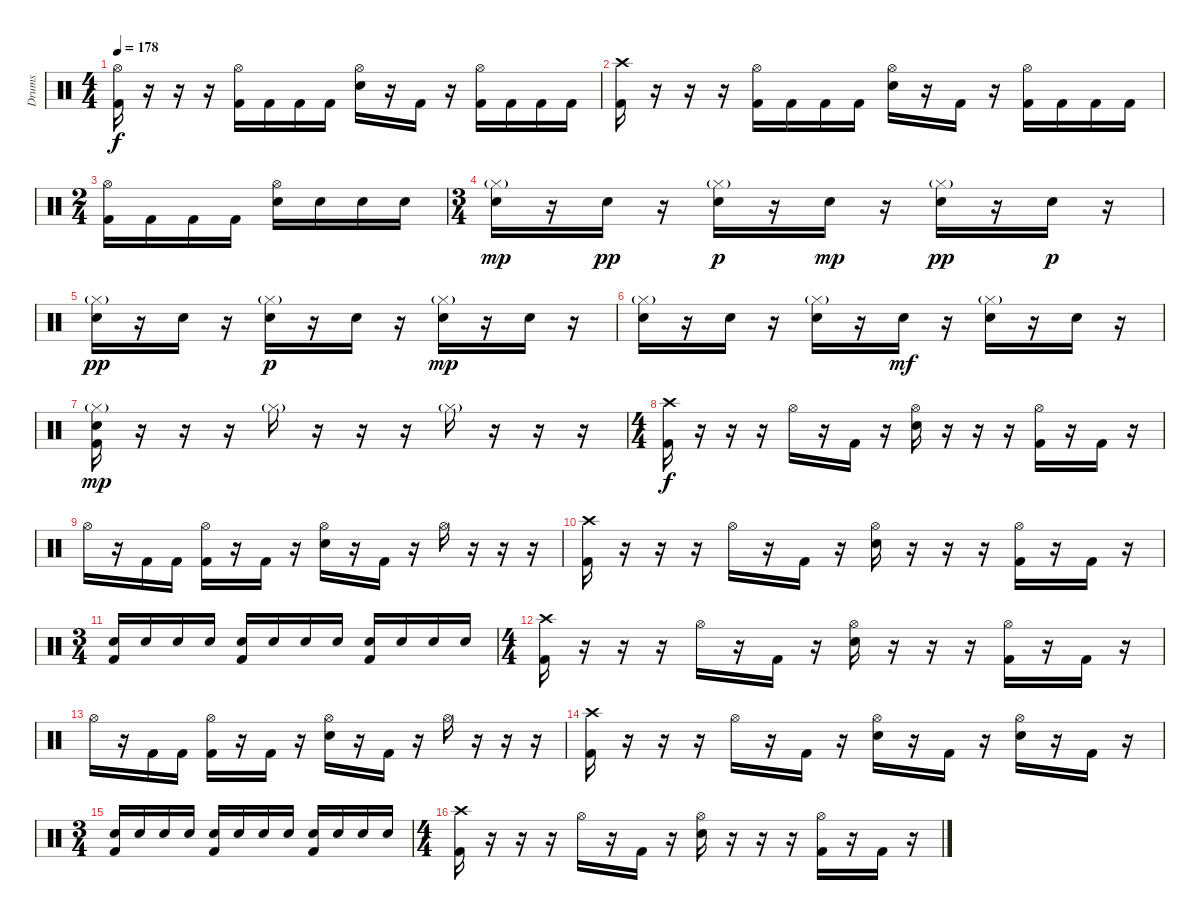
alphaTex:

\track ("Drums" "Drums") {instrument percussion}
\staff {score}
\articulation defaults
\ts (4 4)
\tempo 178
\clef neutral
\ks c
("Hi-Hat (open)" "Kick (hit) 2").16{dy f} r.16 r.16 r.16 ("Hi-Hat (open)" "Kick (hit) 2").16 "Kick (hit) 2".16 "Kick (hit) 2".16 "Kick (hit) 2".16 ("Hi-Hat (open)" "Electric Snare (hit)").16 r.16 "Kick (hit) 2".16 r.16 ("Hi-Hat (open)" "Kick (hit) 2").16 "Kick (hit) 2".16 "Kick (hit) 2".16 "Kick (hit) 2".16 |
("Crash high (hit)" "Kick (hit) 2").16 r.16 r.16 r.16 ("Hi-Hat (open)" "Kick (hit) 2").16 "Kick (hit) 2".16 "Kick (hit) 2".16 "Kick (hit) 2".16 ("Hi-Hat (open)" "Electric Snare (hit)").16 r.16 "Kick (hit) 2".16 r.16 ("Hi-Hat (open)" "Kick (hit) 2").16 "Kick (hit) 2".16 "Kick (hit) 2".16 "Kick (hit) 2".16 |
\ts (2 4)
("Hi-Hat (open)" "Kick (hit) 2").16 "Kick (hit) 2".16 "Kick (hit) 2".16 "Kick (hit) 2".16 ("Hi-Hat (open)" "Electric Snare (hit)").16 "Electric Snare (hit)".16 "Electric Snare (hit)".16 "Electric Snare (hit)".16 |
\ts (3 4)
("Hi-Hat (closed)"{g} "Electric Snare (hit)").16{dy mp} r.16 "Electric Snare (hit)".16{dy pp} r.16 ("Hi-Hat (closed)"{g} "Electric Snare (hit)").16{dy p} r.16 "Electric Snare (hit)".16{dy mp} r.16 ("Hi-Hat (closed)"{g} "Electric Snare (hit)").16{dy pp} r.16 "Electric Snare (hit)".16{dy p} r.16 |
("Hi-Hat (closed)"{g} "Electric Snare (hit)").16{dy pp} r.16 "Electric Snare (hit)".16 r.16 ("Hi-Hat (closed)"{g} "Electric Snare (hit)").16{dy p} r.16 "Electric Snare (hit)".16 r.16 ("Hi-Hat (closed)"{g} "Electric Snare (hit)").16{dy mp} r.16 "Electric Snare (hit)".16 r.16 |
("Hi-Hat (closed)"{g} "Electric Snare (hit)").16 r.16 "Electric Snare (hit)".16 r.16 ("Hi-Hat (closed)"{g} "Electric Snare (hit)").16 r.16 "Electric Snare (hit)".16{dy mf} r.16 ("Hi-Hat (closed)"{g} "Electric Snare (hit)").16 r.16 "Electric Snare (hit)".16 r.16 |
("Hi-Hat (closed)"{g} "Electric Snare (hit)" "Kick (hit) 2").16{dy mp} r.16 r.16 r.16 "Hi-Hat (closed)"{g}.16 r.16 r.16 r.16 "Hi-Hat (closed)"{g}.16 r.16 r.16 r.16 |
\ts (4 4)
("Crash high (hit)" "Kick (hit) 2").16{dy f} r.16 r.16 r.16 "Hi-Hat (open)".16 r.16 "Kick (hit) 2".16 r.16 ("Hi-Hat (open)" "Electric Snare (hit)").16 r.16 r.16 r.16 ("Hi-Hat (open)" "Kick (hit) 2").16 r.16 "Kick (hit) 2".16 r.16 |
"Hi-Hat (open)".16 r.16 "Kick (hit) 2".16 "Kick (hit) 2".16 ("Hi-Hat (open)" "Kick (hit) 2").16 r.16 "Kick (hit) 2".16 r.16 ("Hi-Hat (open)" "Electric Snare (hit)").16 r.16 "Kick (hit) 2".16 r.16 "Hi-Hat (open)".16 r.16 r.16 r.16 |
("Crash high (hit)" "Kick (hit) 2").16 r.16 r.16 r.16 "Hi-Hat (open)".16 r.16 "Kick (hit) 2".16 r.16 ("Hi-Hat (open)" "Electric Snare (hit)").16 r.16 r.16 r.16 ("Hi-Hat (open)" "Kick (hit) 2").16 r.16 "Kick (hit) 2".16 r.16 |
\ts (3 4)
("Electric Snare (hit)" "Kick (hit) 2").16 "Electric Snare (hit)".16 "Electric Snare (hit)".16 "Electric Snare (hit)".16 ("Electric Snare (hit)" "Kick (hit) 2").16 "Electric Snare (hit)".16 "Electric Snare (hit)".16 "Electric Snare (hit)".16 ("Electric Snare (hit)" "Kick (hit) 2").16 "Electric Snare (hit)".16 "Electric Snare (hit)".16 "Electric Snare (hit)".16 |
\ts (4 4)
("Crash high (hit)" "Kick (hit) 2").16 r.16 r.16 r.16 "Hi-Hat (open)".16 r.16 "Kick (hit) 2".16 r.16 ("Hi-Hat (open)" "Electric Snare (hit)").16 r.16 r.16 r.16 ("Hi-Hat (open)" "Kick (hit) 2").16 r.16 "Kick (hit) 2".16 r.16 |
"Hi-Hat (open)".16 r.16 "Kick (hit) 2".16 "Kick (hit) 2".16 ("Hi-Hat (open)" "Kick (hit) 2").16 r.16 "Kick (hit) 2".16 r.16 ("Hi-Hat (open)" "Electric Snare (hit)").16 r.16 "Kick (hit) 2".16 r.16 "Hi-Hat (open)".16 r.16 r.16 r.16 |
("Crash high (hit)" "Kick (hit) 2").16 r.16 r.16 r.16 "Hi-Hat (open)".16 r.16 "Kick (hit) 2".16 r.16 ("Hi-Hat (open)" "Electric Snare (hit)").16 r.16 "Kick (hit) 2".16 r.16 ("Hi-Hat (open)" "Electric Snare (hit)").16 r.16 "Kick (hit) 2".16 r.16 |
\ts (3 4)
("Electric Snare (hit)" "Kick (hit) 2").16 "Electric Snare (hit)".16 "Electric Snare (hit)".16 "Electric Snare (hit)".16 ("Electric Snare (hit)" "Kick (hit) 2").16 "Electric Snare (hit)".16 "Electric Snare (hit)".16 "Electric Snare (hit)".16 ("Electric Snare (hit)" "Kick (hit) 2").16 "Electric Snare (hit)".16 "Electric Snare (hit)".16 "Electric Snare (hit)".16 |
\ts (4 4)
("Crash high (hit)" "Kick (hit) 2").16 r.16 r.16 r.16 "Hi-Hat (open)".16 r.16 "Kick (hit) 2".16 r.16 ("Hi-Hat (open)" "Electric Snare (hit)").16 r.16 r.16 r.16 ("Hi-Hat (open)" "Kick (hit) 2").16 r.16 "Kick (hit) 2".16 r.16
